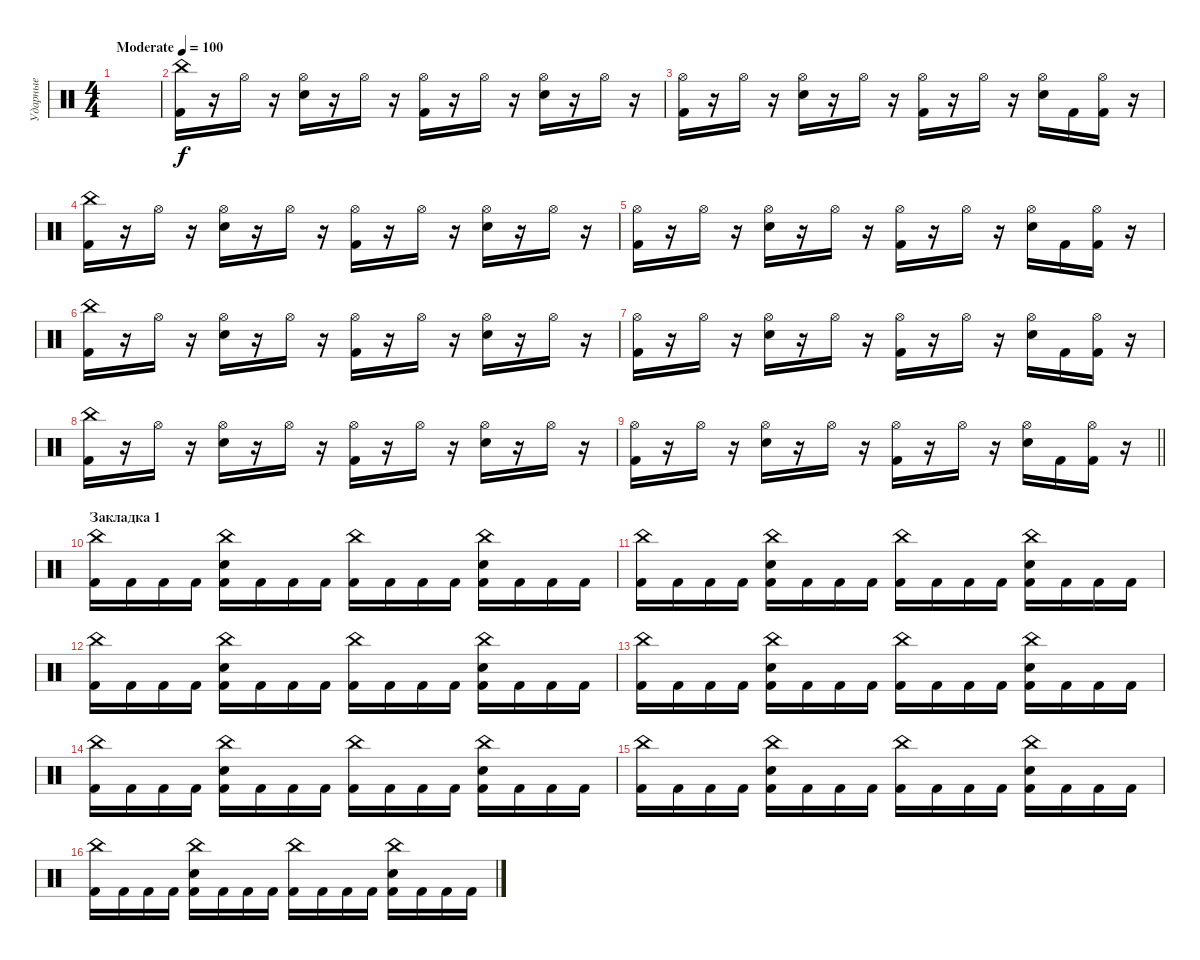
\track ("Ударные" "Ударные") {instrument percussion}
\staff {score}
\articulation defaults
\ts (4 4)
\tempo (100 "Moderate")
\clef neutral
\ks c
|
("China (hit)" "Kick (hit) 2").16 r.16 "Hi-Hat (open)".16 r.16 ("Hi-Hat (open)" "Electric Snare (hit)").16 r.16 "Hi-Hat (open)".16 r.16 ("Hi-Hat (open)" "Kick (hit) 2").16 r.16 "Hi-Hat (open)".16 r.16 ("Hi-Hat (open)" "Electric Snare (hit)").16 r.16 "Hi-Hat (open)".16 r.16 |
("Hi-Hat (open)" "Kick (hit) 2").16 r.16 "Hi-Hat (open)".16 r.16 ("Hi-Hat (open)" "Electric Snare (hit)").16 r.16 "Hi-Hat (open)".16 r.16 ("Hi-Hat (open)" "Kick (hit) 2").16 r.16 "Hi-Hat (open)".16 r.16 ("Hi-Hat (open)" "Electric Snare (hit)").16 "Kick (hit) 2".16 ("Hi-Hat (open)" "Kick (hit) 2").16 r.16 |
("China (hit)" "Kick (hit) 2").16 r.16 "Hi-Hat (open)".16 r.16 ("Hi-Hat (open)" "Electric Snare (hit)").16 r.16 "Hi-Hat (open)".16 r.16 ("Hi-Hat (open)" "Kick (hit) 2").16 r.16 "Hi-Hat (open)".16 r.16 ("Hi-Hat (open)" "Electric Snare (hit)").16 r.16 "Hi-Hat (open)".16 r.16 |
("Hi-Hat (open)" "Kick (hit) 2").16 r.16 "Hi-Hat (open)".16 r.16 ("Hi-Hat (open)" "Electric Snare (hit)").16 r.16 "Hi-Hat (open)".16 r.16 ("Hi-Hat (open)" "Kick (hit) 2").16 r.16 "Hi-Hat (open)".16 r.16 ("Hi-Hat (open)" "Electric Snare (hit)").16 "Kick (hit) 2".16 ("Hi-Hat (open)" "Kick (hit) 2").16 r.16 |
("China (hit)" "Kick (hit) 2").16 r.16 "Hi-Hat (open)".16 r.16 ("Hi-Hat (open)" "Electric Snare (hit)").16 r.16 "Hi-Hat (open)".16 r.16 ("Hi-Hat (open)" "Kick (hit) 2").16 r.16 "Hi-Hat (open)".16 r.16 ("Hi-Hat (open)" "Electric Snare (hit)").16 r.16 "Hi-Hat (open)".16 r.16 |
("Hi-Hat (open)" "Kick (hit) 2").16 r.16 "Hi-Hat (open)".16 r.16 ("Hi-Hat (open)" "Electric Snare (hit)").16 r.16 "Hi-Hat (open)".16 r.16 ("Hi-Hat (open)" "Kick (hit) 2").16 r.16 "Hi-Hat (open)".16 r.16 ("Hi-Hat (open)" "Electric Snare (hit)").16 "Kick (hit) 2".16 ("Hi-Hat (open)" "Kick (hit) 2").16 r.16 |
("China (hit)" "Kick (hit) 2").16 r.16 "Hi-Hat (open)".16 r.16 ("Hi-Hat (open)" "Electric Snare (hit)").16 r.16 "Hi-Hat (open)".16 r.16 ("Hi-Hat (open)" "Kick (hit) 2").16 r.16 "Hi-Hat (open)".16 r.16 ("Hi-Hat (open)" "Electric Snare (hit)").16 r.16 "Hi-Hat (open)".16 r.16 |
\barLineRight lightlight
("Hi-Hat (open)" "Kick (hit) 2").16 r.16 "Hi-Hat (open)".16 r.16 ("Hi-Hat (open)" "Electric Snare (hit)").16 r.16 "Hi-Hat (open)".16 r.16 ("Hi-Hat (open)" "Kick (hit) 2").16 r.16 "Hi-Hat (open)".16 r.16 ("Hi-Hat (open)" "Electric Snare (hit)").16 "Kick (hit) 2".16 ("Hi-Hat (open)" "Kick (hit) 2").16 r.16 |
\section ("" "Закладка 1")
("China (hit)" "Kick (hit) 2").16 "Kick (hit) 2".16 "Kick (hit) 2".16 "Kick (hit) 2".16 ("China (hit)" "Electric Snare (hit)" "Kick (hit) 2").16 "Kick (hit) 2".16 "Kick (hit) 2".16 "Kick (hit) 2".16 ("China (hit)" "Kick (hit) 2").16 "Kick (hit) 2".16 "Kick (hit) 2".16 "Kick (hit) 2".16 ("China (hit)" "Electric Snare (hit)" "Kick (hit) 2").16 "Kick (hit) 2".16 "Kick (hit) 2".16 "Kick (hit) 2".16 |
("China (hit)" "Kick (hit) 2").16 "Kick (hit) 2".16 "Kick (hit) 2".16 "Kick (hit) 2".16 ("China (hit)" "Electric Snare (hit)" "Kick (hit) 2").16 "Kick (hit) 2".16 "Kick (hit) 2".16 "Kick (hit) 2".16 ("China (hit)" "Kick (hit) 2").16 "Kick (hit) 2".16 "Kick (hit) 2".16 "Kick (hit) 2".16 ("China (hit)" "Electric Snare (hit)" "Kick (hit) 2").16 "Kick (hit) 2".16 "Kick (hit) 2".16 "Kick (hit) 2".16 |
("China (hit)" "Kick (hit) 2").16 "Kick (hit) 2".16 "Kick (hit) 2".16 "Kick (hit) 2".16 ("China (hit)" "Electric Snare (hit)" "Kick (hit) 2").16 "Kick (hit) 2".16 "Kick (hit) 2".16 "Kick (hit) 2".16 ("China (hit)" "Kick (hit) 2").16 "Kick (hit) 2".16 "Kick (hit) 2".16 "Kick (hit) 2".16 ("China (hit)" "Electric Snare (hit)" "Kick (hit) 2").16 "Kick (hit) 2".16 "Kick (hit) 2".16 "Kick (hit) 2".16 |
("China (hit)" "Kick (hit) 2").16 "Kick (hit) 2".16 "Kick (hit) 2".16 "Kick (hit) 2".16 ("China (hit)" "Electric Snare (hit)" "Kick (hit) 2").16 "Kick (hit) 2".16 "Kick (hit) 2".16 "Kick (hit) 2".16 ("China (hit)" "Kick (hit) 2").16 "Kick (hit) 2".16 "Kick (hit) 2".16 "Kick (hit) 2".16 ("China (hit)" "Electric Snare (hit)" "Kick (hit) 2").16 "Kick (hit) 2".16 "Kick (hit) 2".16 "Kick (hit) 2".16 |
("China (hit)" "Kick (hit) 2").16 "Kick (hit) 2".16 "Kick (hit) 2".16 "Kick (hit) 2".16 ("China (hit)" "Electric Snare (hit)" "Kick (hit) 2").16 "Kick (hit) 2".16 "Kick (hit) 2".16 "Kick (hit) 2".16 ("China (hit)" "Kick (hit) 2").16 "Kick (hit) 2".16 "Kick (hit) 2".16 "Kick (hit) 2".16 ("China (hit)" "Electric Snare (hit)" "Kick (hit) 2").16 "Kick (hit) 2".16 "Kick (hit) 2".16 "Kick (hit) 2".16 |
("China (hit)" "Kick (hit) 2").16 "Kick (hit) 2".16 "Kick (hit) 2".16 "Kick (hit) 2".16 ("China (hit)" "Electric Snare (hit)" "Kick (hit) 2").16 "Kick (hit) 2".16 "Kick (hit) 2".16 "Kick (hit) 2".16 ("China (hit)" "Kick (hit) 2").16 "Kick (hit) 2".16 "Kick (hit) 2".16 "Kick (hit) 2".16 ("China (hit)" "Electric Snare (hit)" "Kick (hit) 2").16 "Kick (hit) 2".16 "Kick (hit) 2".16 "Kick (hit) 2".16 |
("China (hit)" "Kick (hit) 2").16 "Kick (hit) 2".16 "Kick (hit) 2".16 "Kick (hit) 2".16 ("China (hit)" "Electric Snare (hit)" "Kick (hit) 2").16 "Kick (hit) 2".16 "Kick (hit) 2".16 "Kick (hit) 2".16 ("China (hit)" "Kick (hit) 2").16 "Kick (hit) 2".16 "Kick (hit) 2".16 "Kick (hit) 2".16 ("China (hit)" "Electric Snare (hit)" "Kick (hit) 2").16 "Kick (hit) 2".16 "Kick (hit) 2".16 "Kick (hit) 2".16
